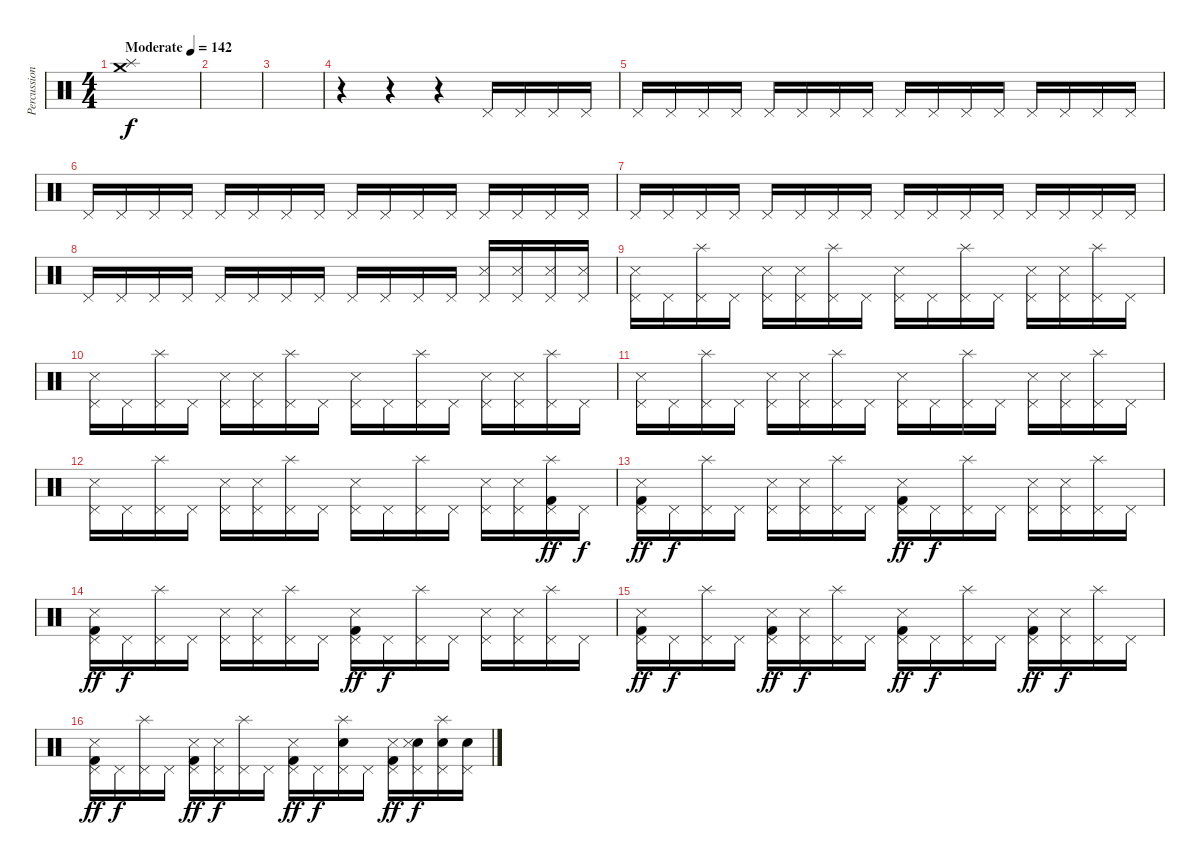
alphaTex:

\track ("Percussion" "Percussion") {instrument percussion}
\staff {score}
\articulation defaults
\ts (4 4)
\tempo (142 "Moderate")
\clef neutral
\ks c
("Splash (hit)" "Crash medium (hit)").1{dy f} |
|
|
r.4 r.4 r.4 "Pedal Hi-Hat (hit)".16 "Pedal Hi-Hat (hit)".16 "Pedal Hi-Hat (hit)".16 "Pedal Hi-Hat (hit)".16 |
"Pedal Hi-Hat (hit)".16{volume 14} "Pedal Hi-Hat (hit)".16 "Pedal Hi-Hat (hit)".16 "Pedal Hi-Hat (hit)".16 "Pedal Hi-Hat (hit)".16 "Pedal Hi-Hat (hit)".16 "Pedal Hi-Hat (hit)".16 "Pedal Hi-Hat (hit)".16 "Pedal Hi-Hat (hit)".16 "Pedal Hi-Hat (hit)".16 "Pedal Hi-Hat (hit)".16 "Pedal Hi-Hat (hit)".16 "Pedal Hi-Hat (hit)".16 "Pedal Hi-Hat (hit)".16 "Pedal Hi-Hat (hit)".16 "Pedal Hi-Hat (hit)".16 |
"Pedal Hi-Hat (hit)".16 "Pedal Hi-Hat (hit)".16 "Pedal Hi-Hat (hit)".16 "Pedal Hi-Hat (hit)".16 "Pedal Hi-Hat (hit)".16 "Pedal Hi-Hat (hit)".16 "Pedal Hi-Hat (hit)".16 "Pedal Hi-Hat (hit)".16 "Pedal Hi-Hat (hit)".16 "Pedal Hi-Hat (hit)".16 "Pedal Hi-Hat (hit)".16 "Pedal Hi-Hat (hit)".16 "Pedal Hi-Hat (hit)".16 "Pedal Hi-Hat (hit)".16 "Pedal Hi-Hat (hit)".16 "Pedal Hi-Hat (hit)".16 |
"Pedal Hi-Hat (hit)".16 "Pedal Hi-Hat (hit)".16 "Pedal Hi-Hat (hit)".16 "Pedal Hi-Hat (hit)".16 "Pedal Hi-Hat (hit)".16 "Pedal Hi-Hat (hit)".16 "Pedal Hi-Hat (hit)".16 "Pedal Hi-Hat (hit)".16 "Pedal Hi-Hat (hit)".16 "Pedal Hi-Hat (hit)".16 "Pedal Hi-Hat (hit)".16 "Pedal Hi-Hat (hit)".16 "Pedal Hi-Hat (hit)".16 "Pedal Hi-Hat (hit)".16 "Pedal Hi-Hat (hit)".16 "Pedal Hi-Hat (hit)".16 |
"Pedal Hi-Hat (hit)".16 "Pedal Hi-Hat (hit)".16 "Pedal Hi-Hat (hit)".16 "Pedal Hi-Hat (hit)".16 "Pedal Hi-Hat (hit)".16 "Pedal Hi-Hat (hit)".16 "Pedal Hi-Hat (hit)".16 "Pedal Hi-Hat (hit)".16 "Pedal Hi-Hat (hit)".16 "Pedal Hi-Hat (hit)".16 "Pedal Hi-Hat (hit)".16 "Pedal Hi-Hat (hit)".16 ("Metronome (hit)" "Pedal Hi-Hat (hit)").16 ("Metronome (hit)" "Pedal Hi-Hat (hit)").16 ("Metronome (hit)" "Pedal Hi-Hat (hit)").16 ("Metronome (hit)" "Pedal Hi-Hat (hit)").16 |
("Metronome (hit)" "Pedal Hi-Hat (hit)").16 "Pedal Hi-Hat (hit)".16 ("Splash (hit)" "Pedal Hi-Hat (hit)").16 "Pedal Hi-Hat (hit)".16 ("Metronome (hit)" "Pedal Hi-Hat (hit)").16 ("Metronome (hit)" "Pedal Hi-Hat (hit)").16 ("Splash (hit)" "Pedal Hi-Hat (hit)").16 "Pedal Hi-Hat (hit)".16 ("Metronome (hit)" "Pedal Hi-Hat (hit)").16 "Pedal Hi-Hat (hit)".16 ("Splash (hit)" "Pedal Hi-Hat (hit)").16 "Pedal Hi-Hat (hit)".16 ("Metronome (hit)" "Pedal Hi-Hat (hit)").16 ("Metronome (hit)" "Pedal Hi-Hat (hit)").16 ("Splash (hit)" "Pedal Hi-Hat (hit)").16 "Pedal Hi-Hat (hit)".16 |
("Metronome (hit)" "Pedal Hi-Hat (hit)").16 "Pedal Hi-Hat (hit)".16 ("Splash (hit)" "Pedal Hi-Hat (hit)").16 "Pedal Hi-Hat (hit)".16 ("Metronome (hit)" "Pedal Hi-Hat (hit)").16 ("Metronome (hit)" "Pedal Hi-Hat (hit)").16 ("Splash (hit)" "Pedal Hi-Hat (hit)").16 "Pedal Hi-Hat (hit)".16 ("Metronome (hit)" "Pedal Hi-Hat (hit)").16 "Pedal Hi-Hat (hit)".16 ("Splash (hit)" "Pedal Hi-Hat (hit)").16 "Pedal Hi-Hat (hit)".16 ("Metronome (hit)" "Pedal Hi-Hat (hit)").16 ("Metronome (hit)" "Pedal Hi-Hat (hit)").16 ("Splash (hit)" "Pedal Hi-Hat (hit)").16 "Pedal Hi-Hat (hit)".16 |
("Metronome (hit)" "Pedal Hi-Hat (hit)").16 "Pedal Hi-Hat (hit)".16 ("Splash (hit)" "Pedal Hi-Hat (hit)").16 "Pedal Hi-Hat (hit)".16 ("Metronome (hit)" "Pedal Hi-Hat (hit)").16 ("Metronome (hit)" "Pedal Hi-Hat (hit)").16 ("Splash (hit)" "Pedal Hi-Hat (hit)").16 "Pedal Hi-Hat (hit)".16 ("Metronome (hit)" "Pedal Hi-Hat (hit)").16 "Pedal Hi-Hat (hit)".16 ("Splash (hit)" "Pedal Hi-Hat (hit)").16 "Pedal Hi-Hat (hit)".16 ("Metronome (hit)" "Pedal Hi-Hat (hit)").16 ("Metronome (hit)" "Pedal Hi-Hat (hit)").16 ("Splash (hit)" "Pedal Hi-Hat (hit)").16 "Pedal Hi-Hat (hit)".16 |
("Metronome (hit)" "Pedal Hi-Hat (hit)").16 "Pedal Hi-Hat (hit)".16 ("Splash (hit)" "Pedal Hi-Hat (hit)").16 "Pedal Hi-Hat (hit)".16 ("Metronome (hit)" "Pedal Hi-Hat (hit)").16 ("Metronome (hit)" "Pedal Hi-Hat (hit)").16 ("Splash (hit)" "Pedal Hi-Hat (hit)").16 "Pedal Hi-Hat (hit)".16 ("Metronome (hit)" "Pedal Hi-Hat (hit)").16 "Pedal Hi-Hat (hit)".16 ("Splash (hit)" "Pedal Hi-Hat (hit)").16 "Pedal Hi-Hat (hit)".16 ("Metronome (hit)" "Pedal Hi-Hat (hit)").16 ("Metronome (hit)" "Pedal Hi-Hat (hit)").16 ("Kick (hit) 2" "Splash (hit)" "Pedal Hi-Hat (hit)").16{dy ff} "Pedal Hi-Hat (hit)".16{dy f} |
("Kick (hit) 2" "Metronome (hit)" "Pedal Hi-Hat (hit)").16{dy ff} "Pedal Hi-Hat (hit)".16{dy f} ("Splash (hit)" "Pedal Hi-Hat (hit)").16 "Pedal Hi-Hat (hit)".16 ("Metronome (hit)" "Pedal Hi-Hat (hit)").16 ("Metronome (hit)" "Pedal Hi-Hat (hit)").16 ("Splash (hit)" "Pedal Hi-Hat (hit)").16 "Pedal Hi-Hat (hit)".16 ("Kick (hit) 2" "Metronome (hit)" "Pedal Hi-Hat (hit)").16{dy ff} "Pedal Hi-Hat (hit)".16{dy f} ("Splash (hit)" "Pedal Hi-Hat (hit)").16 "Pedal Hi-Hat (hit)".16 ("Metronome (hit)" "Pedal Hi-Hat (hit)").16 ("Metronome (hit)" "Pedal Hi-Hat (hit)").16 ("Splash (hit)" "Pedal Hi-Hat (hit)").16 "Pedal Hi-Hat (hit)".16 |
("Kick (hit) 2" "Metronome (hit)" "Pedal Hi-Hat (hit)").16{dy ff} "Pedal Hi-Hat (hit)".16{dy f} ("Splash (hit)" "Pedal Hi-Hat (hit)").16 "Pedal Hi-Hat (hit)".16 ("Metronome (hit)" "Pedal Hi-Hat (hit)").16 ("Metronome (hit)" "Pedal Hi-Hat (hit)").16 ("Splash (hit)" "Pedal Hi-Hat (hit)").16 "Pedal Hi-Hat (hit)".16 ("Kick (hit) 2" "Metronome (hit)" "Pedal Hi-Hat (hit)").16{dy ff} "Pedal Hi-Hat (hit)".16{dy f} ("Splash (hit)" "Pedal Hi-Hat (hit)").16 "Pedal Hi-Hat (hit)".16 ("Metronome (hit)" "Pedal Hi-Hat (hit)").16 ("Metronome (hit)" "Pedal Hi-Hat (hit)").16 ("Splash (hit)" "Pedal Hi-Hat (hit)").16 "Pedal Hi-Hat (hit)".16 |
("Kick (hit) 2" "Metronome (hit)" "Pedal Hi-Hat (hit)").16{dy ff} "Pedal Hi-Hat (hit)".16{dy f} ("Splash (hit)" "Pedal Hi-Hat (hit)").16 "Pedal Hi-Hat (hit)".16 ("Kick (hit) 2" "Metronome (hit)" "Pedal Hi-Hat (hit)").16{dy ff} ("Metronome (hit)" "Pedal Hi-Hat (hit)").16{dy f} ("Splash (hit)" "Pedal Hi-Hat (hit)").16 "Pedal Hi-Hat (hit)".16 ("Kick (hit) 2" "Metronome (hit)" "Pedal Hi-Hat (hit)").16{dy ff} "Pedal Hi-Hat (hit)".16{dy f} ("Splash (hit)" "Pedal Hi-Hat (hit)").16 "Pedal Hi-Hat (hit)".16 ("Kick (hit) 2" "Metronome (hit)" "Pedal Hi-Hat (hit)").16{dy ff} ("Metronome (hit)" "Pedal Hi-Hat (hit)").16{dy f} ("Splash (hit)" "Pedal Hi-Hat (hit)").16 "Pedal Hi-Hat (hit)".16 |
("Kick (hit) 2" "Metronome (hit)" "Pedal Hi-Hat (hit)").16{dy ff} "Pedal Hi-Hat (hit)".16{dy f} ("Splash (hit)" "Pedal Hi-Hat (hit)").16 "Pedal Hi-Hat (hit)".16 ("Kick (hit) 2" "Metronome (hit)" "Pedal Hi-Hat (hit)").16{dy ff} ("Metronome (hit)" "Pedal Hi-Hat (hit)").16{dy f} ("Splash (hit)" "Pedal Hi-Hat (hit)").16 "Pedal Hi-Hat (hit)".16 ("Kick (hit) 2" "Metronome (hit)" "Pedal Hi-Hat (hit)").16{dy ff} "Pedal Hi-Hat (hit)".16{dy f} ("Electric Snare (hit)" "Splash (hit)" "Pedal Hi-Hat (hit)").16 "Pedal Hi-Hat (hit)".16 ("Kick (hit) 2" "Metronome (hit)" "Pedal Hi-Hat (hit)").16{dy ff} ("Electric Snare (hit)" "Metronome (hit)" "Pedal Hi-Hat (hit)").16{dy f} ("Electric Snare (hit)" "Splash (hit)" "Pedal Hi-Hat (hit)").16 ("Electric Snare (hit)" "Pedal Hi-Hat (hit)").16
